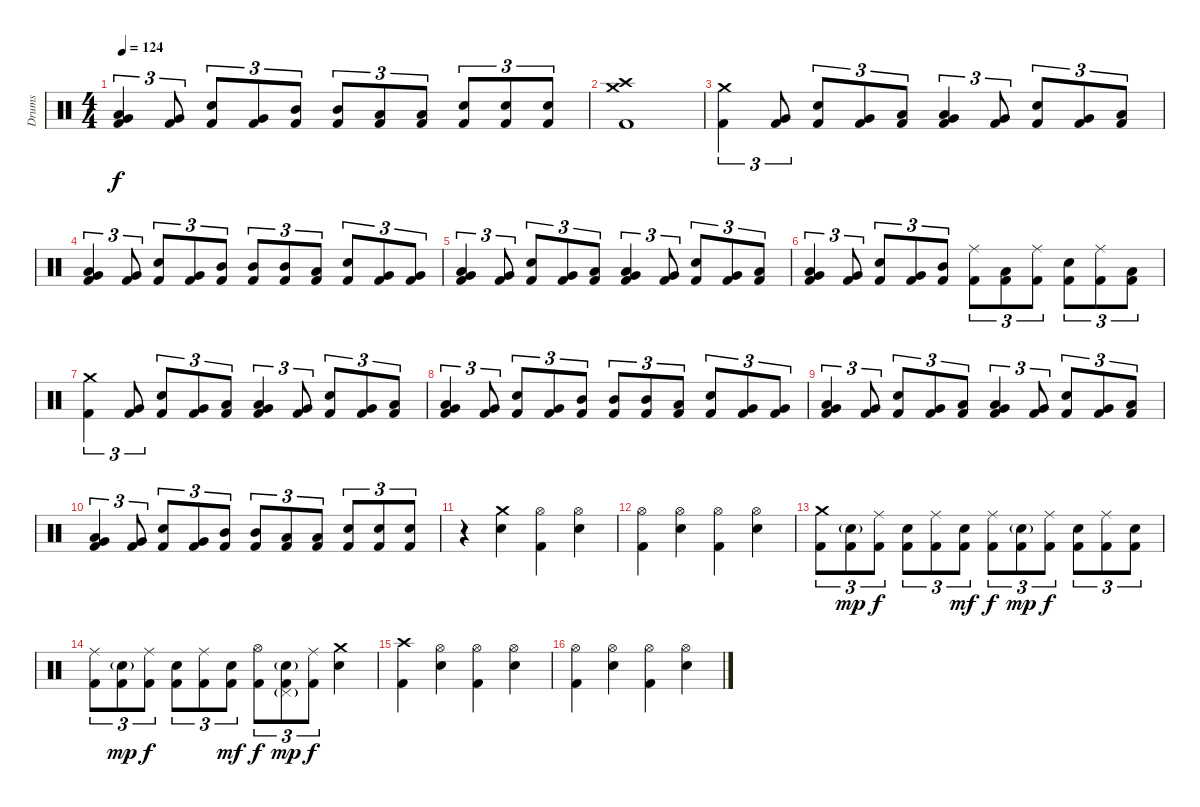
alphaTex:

\track ("Drums" "Drums") {instrument percussion}
\staff {score}
\articulation defaults
\ts (4 4)
\tempo 124
\clef neutral
\ks c
("Low Tom (hit)" "Very Low Tom (hit)" "Kick (hit) 2").4{tu (3 2) dy f} ("Very Low Tom (hit)" "Kick (hit) 2").8{tu (3 2)} ("Snare (hit) 2" "Kick (hit) 2").8{tu (3 2)} ("Very Low Tom (hit)" "Kick (hit) 2").8{tu (3 2)} ("Mid Tom (hit)" "Kick (hit) 2").8{tu (3 2)} ("Mid Tom (hit)" "Kick (hit) 2").8{tu (3 2)} ("Low Tom (hit)" "Kick (hit) 2").8{tu (3 2)} ("Low Tom (hit)" "Kick (hit) 2").8{tu (3 2)} ("Snare (hit) 2" "Kick (hit) 2").8{tu (3 2)} ("Snare (hit) 2" "Kick (hit) 2").8{tu (3 2)} ("Snare (hit) 2" "Kick (hit) 2").8{tu (3 2)} |
("Crash medium (hit)" "Crash high (hit)" "Kick (hit) 2").1 |
("Crash medium (hit)" "Kick (hit) 2").4{tu (3 2)} ("Very Low Tom (hit)" "Kick (hit) 2").8{tu (3 2)} ("Snare (hit) 2" "Kick (hit) 2").8{tu (3 2)} ("Very Low Tom (hit)" "Kick (hit) 2").8{tu (3 2)} ("Low Tom (hit)" "Kick (hit) 2").8{tu (3 2)} ("Low Tom (hit)" "Very Low Tom (hit)" "Kick (hit) 2").4{tu (3 2)} ("Very Low Tom (hit)" "Kick (hit) 2").8{tu (3 2)} ("Snare (hit) 2" "Kick (hit) 2").8{tu (3 2)} ("Very Low Tom (hit)" "Kick (hit) 2").8{tu (3 2)} ("Low Tom (hit)" "Kick (hit) 2").8{tu (3 2)} |
("Low Tom (hit)" "Very Low Tom (hit)" "Kick (hit) 2").4{tu (3 2)} ("Very Low Tom (hit)" "Kick (hit) 2").8{tu (3 2)} ("Snare (hit) 2" "Kick (hit) 2").8{tu (3 2)} ("Very Low Tom (hit)" "Kick (hit) 2").8{tu (3 2)} ("Mid Tom (hit)" "Kick (hit) 2").8{tu (3 2)} ("Mid Tom (hit)" "Kick (hit) 2").8{tu (3 2)} ("Mid Tom (hit)" "Kick (hit) 2").8{tu (3 2)} ("Low Tom (hit)" "Kick (hit) 2").8{tu (3 2)} ("Snare (hit) 2" "Kick (hit) 2").8{tu (3 2)} ("Very Low Tom (hit)" "Kick (hit) 2").8{tu (3 2)} ("Very Low Tom (hit)" "Kick (hit) 2").8{tu (3 2)} |
("Low Tom (hit)" "Very Low Tom (hit)" "Kick (hit) 2").4{tu (3 2)} ("Very Low Tom (hit)" "Kick (hit) 2").8{tu (3 2)} ("Snare (hit) 2" "Kick (hit) 2").8{tu (3 2)} ("Very Low Tom (hit)" "Kick (hit) 2").8{tu (3 2)} ("Low Tom (hit)" "Kick (hit) 2").8{tu (3 2)} ("Low Tom (hit)" "Very Low Tom (hit)" "Kick (hit) 2").4{tu (3 2)} ("Very Low Tom (hit)" "Kick (hit) 2").8{tu (3 2)} ("Snare (hit) 2" "Kick (hit) 2").8{tu (3 2)} ("Very Low Tom (hit)" "Kick (hit) 2").8{tu (3 2)} ("Low Tom (hit)" "Kick (hit) 2").8{tu (3 2)} |
("Low Tom (hit)" "Very Low Tom (hit)" "Kick (hit) 2").4{tu (3 2)} ("Very Low Tom (hit)" "Kick (hit) 2").8{tu (3 2)} ("Snare (hit) 2" "Kick (hit) 2").8{tu (3 2)} ("Very Low Tom (hit)" "Kick (hit) 2").8{tu (3 2)} ("Mid Tom (hit)" "Kick (hit) 2").8{tu (3 2)} ("Ride (middle)" "Kick (hit) 2").8{tu (3 2)} ("Low Tom (hit)" "Kick (hit) 2").8{tu (3 2)} ("Ride (middle)" "Kick (hit) 2").8{tu (3 2)} ("Snare (hit) 2" "Kick (hit) 2").8{tu (3 2)} ("Ride (middle)" "Kick (hit) 2").8{tu (3 2)} ("Low Tom (hit)" "Kick (hit) 2").8{tu (3 2)} |
("Crash medium (hit)" "Kick (hit) 2").4{tu (3 2)} ("Very Low Tom (hit)" "Kick (hit) 2").8{tu (3 2)} ("Snare (hit) 2" "Kick (hit) 2").8{tu (3 2)} ("Very Low Tom (hit)" "Kick (hit) 2").8{tu (3 2)} ("Low Tom (hit)" "Kick (hit) 2").8{tu (3 2)} ("Low Tom (hit)" "Very Low Tom (hit)" "Kick (hit) 2").4{tu (3 2)} ("Very Low Tom (hit)" "Kick (hit) 2").8{tu (3 2)} ("Snare (hit) 2" "Kick (hit) 2").8{tu (3 2)} ("Very Low Tom (hit)" "Kick (hit) 2").8{tu (3 2)} ("Low Tom (hit)" "Kick (hit) 2").8{tu (3 2)} |
("Low Tom (hit)" "Very Low Tom (hit)" "Kick (hit) 2").4{tu (3 2)} ("Very Low Tom (hit)" "Kick (hit) 2").8{tu (3 2)} ("Snare (hit) 2" "Kick (hit) 2").8{tu (3 2)} ("Very Low Tom (hit)" "Kick (hit) 2").8{tu (3 2)} ("Mid Tom (hit)" "Kick (hit) 2").8{tu (3 2)} ("Mid Tom (hit)" "Kick (hit) 2").8{tu (3 2)} ("Mid Tom (hit)" "Kick (hit) 2").8{tu (3 2)} ("Low Tom (hit)" "Kick (hit) 2").8{tu (3 2)} ("Snare (hit) 2" "Kick (hit) 2").8{tu (3 2)} ("Very Low Tom (hit)" "Kick (hit) 2").8{tu (3 2)} ("Very Low Tom (hit)" "Kick (hit) 2").8{tu (3 2)} |
("Low Tom (hit)" "Very Low Tom (hit)" "Kick (hit) 2").4{tu (3 2)} ("Very Low Tom (hit)" "Kick (hit) 2").8{tu (3 2)} ("Snare (hit) 2" "Kick (hit) 2").8{tu (3 2)} ("Very Low Tom (hit)" "Kick (hit) 2").8{tu (3 2)} ("Low Tom (hit)" "Kick (hit) 2").8{tu (3 2)} ("Low Tom (hit)" "Very Low Tom (hit)" "Kick (hit) 2").4{tu (3 2)} ("Very Low Tom (hit)" "Kick (hit) 2").8{tu (3 2)} ("Snare (hit) 2" "Kick (hit) 2").8{tu (3 2)} ("Very Low Tom (hit)" "Kick (hit) 2").8{tu (3 2)} ("Low Tom (hit)" "Kick (hit) 2").8{tu (3 2)} |
("Low Tom (hit)" "Very Low Tom (hit)" "Kick (hit) 2").4{tu (3 2)} ("Very Low Tom (hit)" "Kick (hit) 2").8{tu (3 2)} ("Snare (hit) 2" "Kick (hit) 2").8{tu (3 2)} ("Very Low Tom (hit)" "Kick (hit) 2").8{tu (3 2)} ("Mid Tom (hit)" "Kick (hit) 2").8{tu (3 2)} ("Mid Tom (hit)" "Kick (hit) 2").8{tu (3 2)} ("Low Tom (hit)" "Kick (hit) 2").8{tu (3 2)} ("Low Tom (hit)" "Kick (hit) 2").8{tu (3 2)} ("Snare (hit) 2" "Kick (hit) 2").8{tu (3 2)} ("Snare (hit) 2" "Kick (hit) 2").8{tu (3 2)} ("Snare (hit) 2" "Kick (hit) 2").8{tu (3 2)} |
r.4 ("Crash medium (hit)" "Snare (hit) 2").4 ("Hi-Hat (open)" "Kick (hit) 2").4 ("Hi-Hat (open)" "Snare (hit) 2").4 |
("Hi-Hat (open)" "Kick (hit) 2").4 ("Hi-Hat (open)" "Snare (hit) 2").4 ("Hi-Hat (open)" "Kick (hit) 2").4 ("Hi-Hat (open)" "Snare (hit) 2").4 |
("Crash medium (hit)" "Kick (hit) 2").8{tu (3 2)} ("Snare (hit) 2"{g} "Kick (hit) 2").8{tu (3 2) dy mp} ("Ride (middle)" "Kick (hit) 2").8{tu (3 2) dy f} ("Snare (hit) 2" "Kick (hit) 2").8{tu (3 2)} ("Ride (middle)" "Kick (hit) 2").8{tu (3 2)} ("Snare (hit) 2" "Kick (hit) 2").8{tu (3 2) dy mf} ("Ride (middle)" "Kick (hit) 2").8{tu (3 2) dy f} ("Snare (hit) 2"{g} "Kick (hit) 2").8{tu (3 2) dy mp} ("Ride (middle)" "Kick (hit) 2").8{tu (3 2) dy f} ("Snare (hit) 2" "Kick (hit) 2").8{tu (3 2)} ("Ride (middle)" "Kick (hit) 2").8{tu (3 2)} ("Snare (hit) 2" "Kick (hit) 2").8{tu (3 2)} |
("Ride (middle)" "Kick (hit) 2").8{tu (3 2)} ("Snare (hit) 2"{g} "Kick (hit) 2").8{tu (3 2) dy mp} ("Ride (middle)" "Kick (hit) 2").8{tu (3 2) dy f} ("Snare (hit) 2" "Kick (hit) 2").8{tu (3 2)} ("Ride (middle)" "Kick (hit) 2").8{tu (3 2)} ("Snare (hit) 2" "Kick (hit) 2").8{tu (3 2) dy mf} ("Hi-Hat (open)" "Kick (hit) 2").8{tu (3 2) dy f} ("Pedal Hi-Hat (hit)"{g} "Snare (hit) 2"{g} "Kick (hit) 2").8{tu (3 2) dy mp} ("Ride (middle)" "Kick (hit) 2").8{tu (3 2) dy f} ("Crash medium (hit)" "Snare (hit) 2").4 |
("Crash high (hit)" "Kick (hit) 2").4 ("Hi-Hat (open)" "Snare (hit) 2").4 ("Hi-Hat (open)" "Kick (hit) 2").4 ("Hi-Hat (open)" "Snare (hit) 2").4 |
("Hi-Hat (open)" "Kick (hit) 2").4 ("Hi-Hat (open)" "Snare (hit) 2").4 ("Hi-Hat (open)" "Kick (hit) 2").4 ("Hi-Hat (open)" "Snare (hit) 2").4
